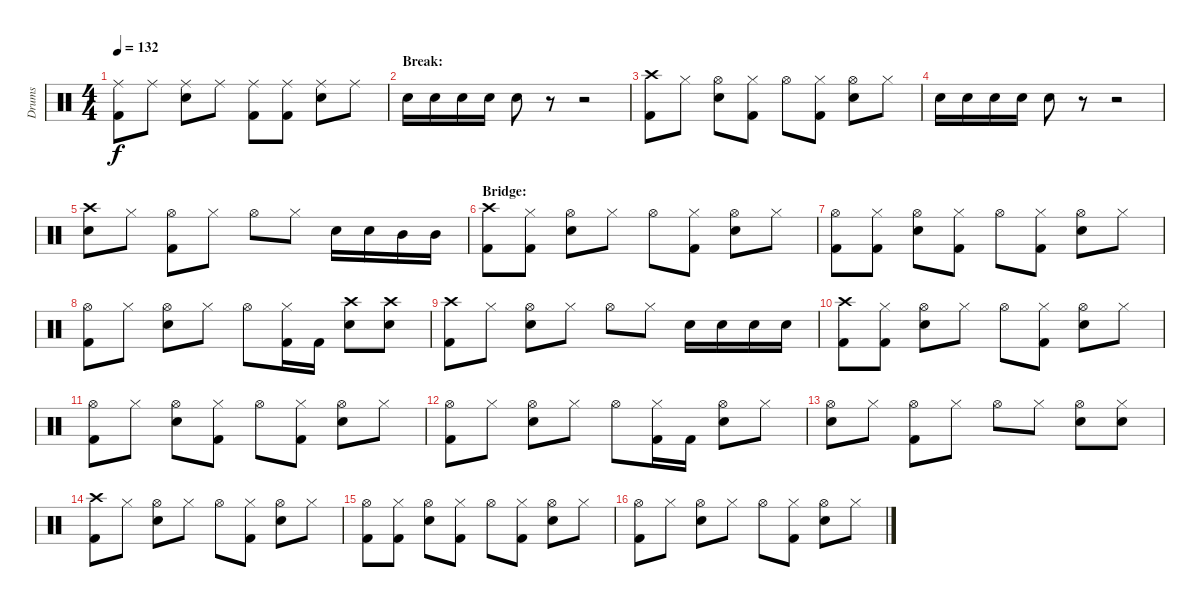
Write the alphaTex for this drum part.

\track ("Drums" "Drums") {instrument percussion}
\staff {score}
\articulation defaults
\ts (4 4)
\tempo 132
\clef neutral
\ks c
("Ride (middle)" "Kick (hit) 2").8{dy f} "Ride (middle)".8 ("Ride (middle)" "Electric Snare (hit)").8 "Ride (middle)".8 ("Ride (middle)" "Kick (hit) 2").8 ("Ride (middle)" "Kick (hit) 2").8 ("Ride (middle)" "Electric Snare (hit)").8 "Ride (middle)".8 |
\section ("" "Break:")
"Electric Snare (hit)".16 "Electric Snare (hit)".16 "Electric Snare (hit)".16 "Electric Snare (hit)".16 "Electric Snare (hit)".8 r.8 r.2 |
("Crash high (hit)" "Kick (hit) 2").8 "Hi-Hat (closed)".8 ("Hi-Hat (open)" "Electric Snare (hit)").8 ("Hi-Hat (closed)" "Kick (hit) 2").8 "Hi-Hat (open)".8 ("Hi-Hat (closed)" "Kick (hit) 2").8 ("Hi-Hat (open)" "Electric Snare (hit)").8 "Hi-Hat (closed)".8 |
"Electric Snare (hit)".16 "Electric Snare (hit)".16 "Electric Snare (hit)".16 "Electric Snare (hit)".16 "Electric Snare (hit)".8 r.8 r.2 |
("Crash high (hit)" "Electric Snare (hit)").8 "Hi-Hat (closed)".8 ("Hi-Hat (open)" "Kick (hit) 2").8 "Hi-Hat (closed)".8 "Hi-Hat (open)".8 "Hi-Hat (closed)".8 "Electric Snare (hit)".16 "Electric Snare (hit)".16 "Mid Tom (hit)".16 "Mid Tom (hit)".16 |
\section ("" "Bridge:")
("Crash high (hit)" "Kick (hit) 2").8 ("Hi-Hat (closed)" "Kick (hit) 2").8 ("Hi-Hat (open)" "Electric Snare (hit)").8 "Hi-Hat (closed)".8 "Hi-Hat (open)".8 ("Hi-Hat (closed)" "Kick (hit) 2").8 ("Hi-Hat (open)" "Electric Snare (hit)").8 "Hi-Hat (closed)".8 |
("Hi-Hat (open)" "Kick (hit) 2").8 ("Hi-Hat (closed)" "Kick (hit) 2").8 ("Hi-Hat (open)" "Electric Snare (hit)").8 ("Hi-Hat (closed)" "Kick (hit) 2").8 "Hi-Hat (open)".8 ("Hi-Hat (closed)" "Kick (hit) 2").8 ("Hi-Hat (open)" "Electric Snare (hit)").8 "Hi-Hat (closed)".8 |
("Hi-Hat (open)" "Kick (hit) 2").8 "Hi-Hat (closed)".8 ("Hi-Hat (open)" "Electric Snare (hit)").8 "Hi-Hat (closed)".8 "Hi-Hat (open)".8 ("Hi-Hat (closed)" "Kick (hit) 2").16 "Kick (hit) 2".16 ("Crash high (hit)" "Electric Snare (hit)").8 ("Crash high (hit)" "Electric Snare (hit)").8 |
("Crash high (hit)" "Kick (hit) 2").8 "Hi-Hat (closed)".8 ("Hi-Hat (open)" "Electric Snare (hit)").8 "Hi-Hat (closed)".8 "Hi-Hat (open)".8 "Hi-Hat (closed)".8 "Electric Snare (hit)".16 "Electric Snare (hit)".16 "Electric Snare (hit)".16 "Electric Snare (hit)".16 |
("Crash high (hit)" "Kick (hit) 2").8 ("Hi-Hat (closed)" "Kick (hit) 2").8 ("Hi-Hat (open)" "Electric Snare (hit)").8 "Hi-Hat (closed)".8 "Hi-Hat (open)".8 ("Hi-Hat (closed)" "Kick (hit) 2").8 ("Hi-Hat (open)" "Electric Snare (hit)").8 "Hi-Hat (closed)".8 |
("Hi-Hat (open)" "Kick (hit) 2").8 "Hi-Hat (closed)".8 ("Hi-Hat (open)" "Electric Snare (hit)").8 ("Hi-Hat (closed)" "Kick (hit) 2").8 "Hi-Hat (open)".8 ("Hi-Hat (closed)" "Kick (hit) 2").8 ("Hi-Hat (open)" "Electric Snare (hit)").8 "Hi-Hat (closed)".8 |
("Hi-Hat (open)" "Kick (hit) 2").8 "Hi-Hat (closed)".8 ("Hi-Hat (open)" "Electric Snare (hit)").8 "Hi-Hat (closed)".8 "Hi-Hat (open)".8 ("Hi-Hat (closed)" "Kick (hit) 2").16 "Kick (hit) 2".16 ("Hi-Hat (open)" "Electric Snare (hit)").8 "Hi-Hat (closed)".8 |
("Hi-Hat (open)" "Electric Snare (hit)").8 "Hi-Hat (closed)".8 ("Hi-Hat (open)" "Kick (hit) 2").8 "Hi-Hat (closed)".8 "Hi-Hat (open)".8 "Hi-Hat (closed)".8 ("Hi-Hat (open)" "Electric Snare (hit)").8 ("Hi-Hat (closed)" "Electric Snare (hit)").8 |
("Crash high (hit)" "Kick (hit) 2").8 "Hi-Hat (closed)".8 ("Hi-Hat (open)" "Electric Snare (hit)").8 "Hi-Hat (closed)".8 "Hi-Hat (open)".8 ("Hi-Hat (closed)" "Kick (hit) 2").8 ("Hi-Hat (open)" "Electric Snare (hit)").8 "Hi-Hat (closed)".8 |
("Hi-Hat (open)" "Kick (hit) 2").8 ("Hi-Hat (closed)" "Kick (hit) 2").8 ("Hi-Hat (open)" "Electric Snare (hit)").8 ("Hi-Hat (closed)" "Kick (hit) 2").8 "Hi-Hat (open)".8 ("Hi-Hat (closed)" "Kick (hit) 2").8 ("Hi-Hat (open)" "Electric Snare (hit)").8 "Hi-Hat (closed)".8 |
("Hi-Hat (open)" "Kick (hit) 2").8 "Hi-Hat (closed)".8 ("Hi-Hat (open)" "Electric Snare (hit)").8 "Hi-Hat (closed)".8 "Hi-Hat (open)".8 ("Hi-Hat (closed)" "Kick (hit) 2").8 ("Hi-Hat (open)" "Electric Snare (hit)").8 "Hi-Hat (closed)".8
